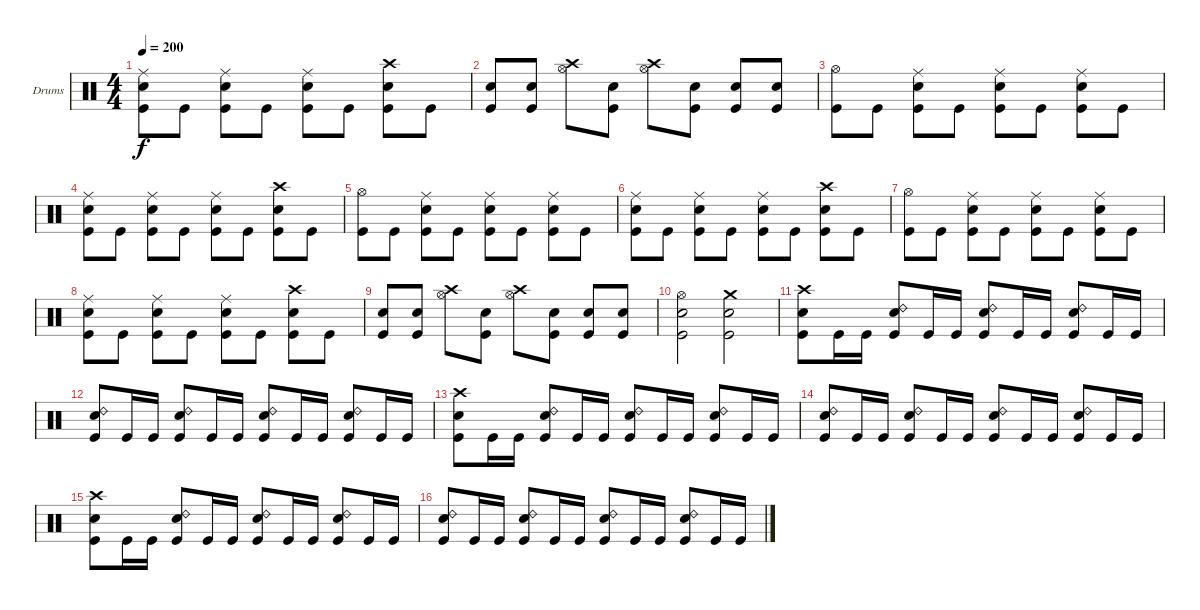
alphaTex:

\bracketExtendMode groupsimilarinstruments
\firstSystemTrackNameOrientation horizontal
\otherSystemsTrackNameOrientation horizontal
\track ("Canadien" "Drums") {instrument percussion}
\staff {score}
\articulation defaults
\ts (4 4)
\tempo 200
\clef neutral
\ks c
("Ride (middle)" "Snare (hit) 2" "Kick (hit)").8{dy f} "Kick (hit)".8 ("Ride (middle)" "Snare (hit) 2" "Kick (hit)").8 "Kick (hit)".8 ("Ride (middle)" "Snare (hit) 2" "Kick (hit)").8 "Kick (hit)".8 ("Crash high (hit)" "Snare (hit) 2" "Kick (hit)").8 "Kick (hit)".8 |
("Snare (hit) 2" "Kick (hit)").8 ("Snare (hit) 2" "Kick (hit)").8 ("Hi-Hat (open)" "Crash high (hit)").8 ("Snare (hit) 2" "Kick (hit)").8 ("Hi-Hat (open)" "Crash high (hit)").8 ("Snare (hit) 2" "Kick (hit)").8 ("Snare (hit) 2" "Kick (hit)").8 ("Snare (hit) 2" "Kick (hit)").8 |
("Hi-Hat (open)" "Kick (hit)").8 "Kick (hit)".8 ("Ride (middle)" "Snare (hit) 2" "Kick (hit)").8 "Kick (hit)".8 ("Ride (middle)" "Snare (hit) 2" "Kick (hit)").8 "Kick (hit)".8 ("Ride (middle)" "Snare (hit) 2" "Kick (hit)").8 "Kick (hit)".8 |
("Ride (middle)" "Snare (hit) 2" "Kick (hit)").8 "Kick (hit)".8 ("Ride (middle)" "Snare (hit) 2" "Kick (hit)").8 "Kick (hit)".8 ("Ride (middle)" "Snare (hit) 2" "Kick (hit)").8 "Kick (hit)".8 ("Crash high (hit)" "Snare (hit) 2" "Kick (hit)").8 "Kick (hit)".8 |
("Hi-Hat (open)" "Kick (hit)").8 "Kick (hit)".8 ("Ride (middle)" "Snare (hit) 2" "Kick (hit)").8 "Kick (hit)".8 ("Ride (middle)" "Snare (hit) 2" "Kick (hit)").8 "Kick (hit)".8 ("Ride (middle)" "Snare (hit) 2" "Kick (hit)").8 "Kick (hit)".8 |
("Ride (middle)" "Snare (hit) 2" "Kick (hit)").8 "Kick (hit)".8 ("Ride (middle)" "Snare (hit) 2" "Kick (hit)").8 "Kick (hit)".8 ("Ride (middle)" "Snare (hit) 2" "Kick (hit)").8 "Kick (hit)".8 ("Crash high (hit)" "Snare (hit) 2" "Kick (hit)").8 "Kick (hit)".8 |
("Hi-Hat (open)" "Kick (hit)").8 "Kick (hit)".8 ("Ride (middle)" "Snare (hit) 2" "Kick (hit)").8 "Kick (hit)".8 ("Ride (middle)" "Snare (hit) 2" "Kick (hit)").8 "Kick (hit)".8 ("Ride (middle)" "Snare (hit) 2" "Kick (hit)").8 "Kick (hit)".8 |
("Ride (middle)" "Snare (hit) 2" "Kick (hit)").8 "Kick (hit)".8 ("Ride (middle)" "Snare (hit) 2" "Kick (hit)").8 "Kick (hit)".8 ("Ride (middle)" "Snare (hit) 2" "Kick (hit)").8 "Kick (hit)".8 ("Crash high (hit)" "Snare (hit) 2" "Kick (hit)").8 "Kick (hit)".8 |
("Snare (hit) 2" "Kick (hit)").8 ("Snare (hit) 2" "Kick (hit)").8 ("Hi-Hat (open)" "Crash high (hit)").8 ("Snare (hit) 2" "Kick (hit)").8 ("Hi-Hat (open)" "Crash high (hit)").8 ("Snare (hit) 2" "Kick (hit)").8 ("Snare (hit) 2" "Kick (hit)").8 ("Snare (hit) 2" "Kick (hit)").8 |
("Hi-Hat (open)" "Snare (hit) 2" "Kick (hit)").2 ("Crash medium (hit)" "Snare (hit) 2" "Kick (hit)").2 |
("Crash high (hit)" "Snare (hit) 2" "Kick (hit)").8 "Kick (hit)".16 "Kick (hit)".16 ("Ride (bell) 2" "Snare (hit) 2" "Kick (hit)").8 "Kick (hit)".16 "Kick (hit)".16 ("Ride (bell) 2" "Snare (hit) 2" "Kick (hit)").8 "Kick (hit)".16 "Kick (hit)".16 ("Ride (bell) 2" "Snare (hit) 2" "Kick (hit)").8 "Kick (hit)".16 "Kick (hit)".16 |
("Ride (bell) 2" "Snare (hit) 2" "Kick (hit)").8 "Kick (hit)".16 "Kick (hit)".16 ("Ride (bell) 2" "Snare (hit) 2" "Kick (hit)").8 "Kick (hit)".16 "Kick (hit)".16 ("Ride (bell) 2" "Snare (hit) 2" "Kick (hit)").8 "Kick (hit)".16 "Kick (hit)".16 ("Ride (bell) 2" "Snare (hit) 2" "Kick (hit)").8 "Kick (hit)".16 "Kick (hit)".16 |
("Crash high (hit)" "Snare (hit) 2" "Kick (hit)").8 "Kick (hit)".16 "Kick (hit)".16 ("Ride (bell) 2" "Snare (hit) 2" "Kick (hit)").8 "Kick (hit)".16 "Kick (hit)".16 ("Ride (bell) 2" "Snare (hit) 2" "Kick (hit)").8 "Kick (hit)".16 "Kick (hit)".16 ("Ride (bell) 2" "Snare (hit) 2" "Kick (hit)").8 "Kick (hit)".16 "Kick (hit)".16 |
("Ride (bell) 2" "Snare (hit) 2" "Kick (hit)").8 "Kick (hit)".16 "Kick (hit)".16 ("Ride (bell) 2" "Snare (hit) 2" "Kick (hit)").8 "Kick (hit)".16 "Kick (hit)".16 ("Ride (bell) 2" "Snare (hit) 2" "Kick (hit)").8 "Kick (hit)".16 "Kick (hit)".16 ("Ride (bell) 2" "Snare (hit) 2" "Kick (hit)").8 "Kick (hit)".16 "Kick (hit)".16 |
("Crash high (hit)" "Snare (hit) 2" "Kick (hit)").8 "Kick (hit)".16 "Kick (hit)".16 ("Ride (bell) 2" "Snare (hit) 2" "Kick (hit)").8 "Kick (hit)".16 "Kick (hit)".16 ("Ride (bell) 2" "Snare (hit) 2" "Kick (hit)").8 "Kick (hit)".16 "Kick (hit)".16 ("Ride (bell) 2" "Snare (hit) 2" "Kick (hit)").8 "Kick (hit)".16 "Kick (hit)".16 |
("Ride (bell) 2" "Snare (hit) 2" "Kick (hit)").8 "Kick (hit)".16 "Kick (hit)".16 ("Ride (bell) 2" "Snare (hit) 2" "Kick (hit)").8 "Kick (hit)".16 "Kick (hit)".16 ("Ride (bell) 2" "Snare (hit) 2" "Kick (hit)").8 "Kick (hit)".16 "Kick (hit)".16 ("Ride (bell) 2" "Snare (hit) 2" "Kick (hit)").8 "Kick (hit)".16 "Kick (hit)".16
